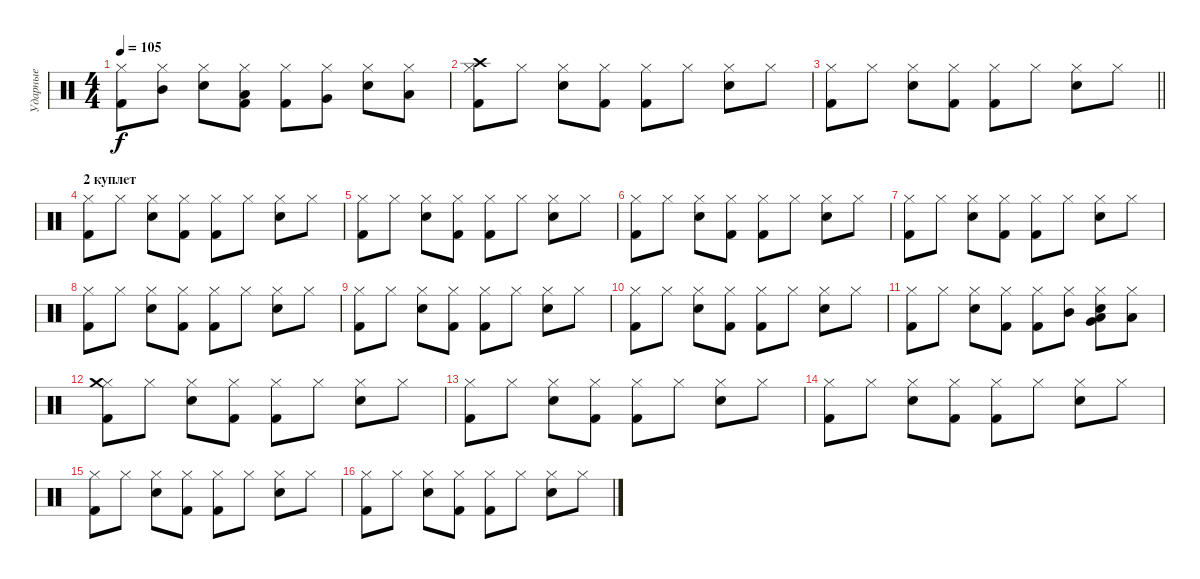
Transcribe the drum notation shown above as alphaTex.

\track ("Ударные" "Ударные") {instrument percussion}
\staff {score}
\articulation defaults
\ts (4 4)
\tempo 105
\clef neutral
\ks c
("Kick (hit) 2" "Hi-Hat (closed)").8{dy f} ("Hi-Hat (closed)" "Mid Tom (hit)").8 ("Hi-Hat (closed)" "Electric Snare (hit)").8 ("Kick (hit) 2" "Hi-Hat (closed)" "Low Tom (hit)").8 ("Kick (hit) 2" "Hi-Hat (closed)").8 ("Hi-Hat (closed)" "Very Low Tom (hit)").8 ("Electric Snare (hit)" "Hi-Hat (closed)").8 ("Hi-Hat (closed)" "Low Floor Tom (hit)").8 |
("Kick (hit) 2" "Hi-Hat (closed)" "Crash high (hit)").8 "Hi-Hat (closed)".8 ("Hi-Hat (closed)" "Electric Snare (hit)").8 ("Kick (hit) 2" "Hi-Hat (closed)").8 ("Kick (hit) 2" "Hi-Hat (closed)").8 "Hi-Hat (closed)".8 ("Electric Snare (hit)" "Hi-Hat (closed)").8 "Hi-Hat (closed)".8 |
\barLineRight lightlight
("Kick (hit) 2" "Hi-Hat (closed)").8 "Hi-Hat (closed)".8 ("Hi-Hat (closed)" "Electric Snare (hit)").8 ("Kick (hit) 2" "Hi-Hat (closed)").8 ("Kick (hit) 2" "Hi-Hat (closed)").8 "Hi-Hat (closed)".8 ("Electric Snare (hit)" "Hi-Hat (closed)").8 "Hi-Hat (closed)".8 |
\section ("" "2 куплет")
("Kick (hit) 2" "Hi-Hat (closed)").8 "Hi-Hat (closed)".8 ("Hi-Hat (closed)" "Electric Snare (hit)").8 ("Kick (hit) 2" "Hi-Hat (closed)").8 ("Kick (hit) 2" "Hi-Hat (closed)").8 "Hi-Hat (closed)".8 ("Electric Snare (hit)" "Hi-Hat (closed)").8 "Hi-Hat (closed)".8 |
("Kick (hit) 2" "Hi-Hat (closed)").8 "Hi-Hat (closed)".8 ("Hi-Hat (closed)" "Electric Snare (hit)").8 ("Kick (hit) 2" "Hi-Hat (closed)").8 ("Kick (hit) 2" "Hi-Hat (closed)").8 "Hi-Hat (closed)".8 ("Electric Snare (hit)" "Hi-Hat (closed)").8 "Hi-Hat (closed)".8 |
("Kick (hit) 2" "Hi-Hat (closed)").8 "Hi-Hat (closed)".8 ("Hi-Hat (closed)" "Electric Snare (hit)").8 ("Kick (hit) 2" "Hi-Hat (closed)").8 ("Kick (hit) 2" "Hi-Hat (closed)").8 "Hi-Hat (closed)".8 ("Electric Snare (hit)" "Hi-Hat (closed)").8 "Hi-Hat (closed)".8 |
("Kick (hit) 2" "Hi-Hat (closed)").8 "Hi-Hat (closed)".8 ("Hi-Hat (closed)" "Electric Snare (hit)").8 ("Kick (hit) 2" "Hi-Hat (closed)").8 ("Kick (hit) 2" "Hi-Hat (closed)").8 "Hi-Hat (closed)".8 ("Electric Snare (hit)" "Hi-Hat (closed)").8 "Hi-Hat (closed)".8 |
("Kick (hit) 2" "Hi-Hat (closed)").8 "Hi-Hat (closed)".8 ("Hi-Hat (closed)" "Electric Snare (hit)").8 ("Kick (hit) 2" "Hi-Hat (closed)").8 ("Kick (hit) 2" "Hi-Hat (closed)").8 "Hi-Hat (closed)".8 ("Electric Snare (hit)" "Hi-Hat (closed)").8 "Hi-Hat (closed)".8 |
("Kick (hit) 2" "Hi-Hat (closed)").8 "Hi-Hat (closed)".8 ("Hi-Hat (closed)" "Electric Snare (hit)").8 ("Kick (hit) 2" "Hi-Hat (closed)").8 ("Kick (hit) 2" "Hi-Hat (closed)").8 "Hi-Hat (closed)".8 ("Electric Snare (hit)" "Hi-Hat (closed)").8 "Hi-Hat (closed)".8 |
("Kick (hit) 2" "Hi-Hat (closed)").8 "Hi-Hat (closed)".8 ("Hi-Hat (closed)" "Electric Snare (hit)").8 ("Kick (hit) 2" "Hi-Hat (closed)").8 ("Kick (hit) 2" "Hi-Hat (closed)").8 "Hi-Hat (closed)".8 ("Electric Snare (hit)" "Hi-Hat (closed)").8 "Hi-Hat (closed)".8 |
("Kick (hit) 2" "Hi-Hat (closed)").8 "Hi-Hat (closed)".8 ("Hi-Hat (closed)" "Electric Snare (hit)").8 ("Kick (hit) 2" "Hi-Hat (closed)").8 ("Kick (hit) 2" "Hi-Hat (closed)").8 ("Hi-Hat (closed)" "Mid Tom (hit)").8 ("Electric Snare (hit)" "Hi-Hat (closed)" "Low Tom (hit)" "Very Low Tom (hit)").8 ("Hi-Hat (closed)" "Low Floor Tom (hit)").8 |
("Kick (hit) 2" "Hi-Hat (closed)" "Crash medium (hit)").8 "Hi-Hat (closed)".8 ("Hi-Hat (closed)" "Electric Snare (hit)").8 ("Kick (hit) 2" "Hi-Hat (closed)").8 ("Kick (hit) 2" "Hi-Hat (closed)").8 "Hi-Hat (closed)".8 ("Electric Snare (hit)" "Hi-Hat (closed)").8 "Hi-Hat (closed)".8 |
("Kick (hit) 2" "Hi-Hat (closed)").8 "Hi-Hat (closed)".8 ("Hi-Hat (closed)" "Electric Snare (hit)").8 ("Kick (hit) 2" "Hi-Hat (closed)").8 ("Kick (hit) 2" "Hi-Hat (closed)").8 "Hi-Hat (closed)".8 ("Electric Snare (hit)" "Hi-Hat (closed)").8 "Hi-Hat (closed)".8 |
("Kick (hit) 2" "Hi-Hat (closed)").8 "Hi-Hat (closed)".8 ("Hi-Hat (closed)" "Electric Snare (hit)").8 ("Kick (hit) 2" "Hi-Hat (closed)").8 ("Kick (hit) 2" "Hi-Hat (closed)").8 "Hi-Hat (closed)".8 ("Electric Snare (hit)" "Hi-Hat (closed)").8 "Hi-Hat (closed)".8 |
("Kick (hit) 2" "Hi-Hat (closed)").8 "Hi-Hat (closed)".8 ("Hi-Hat (closed)" "Electric Snare (hit)").8 ("Kick (hit) 2" "Hi-Hat (closed)").8 ("Kick (hit) 2" "Hi-Hat (closed)").8 "Hi-Hat (closed)".8 ("Electric Snare (hit)" "Hi-Hat (closed)").8 "Hi-Hat (closed)".8 |
("Kick (hit) 2" "Hi-Hat (closed)").8 "Hi-Hat (closed)".8 ("Hi-Hat (closed)" "Electric Snare (hit)").8 ("Kick (hit) 2" "Hi-Hat (closed)").8 ("Kick (hit) 2" "Hi-Hat (closed)").8 "Hi-Hat (closed)".8 ("Electric Snare (hit)" "Hi-Hat (closed)").8 "Hi-Hat (closed)".8
